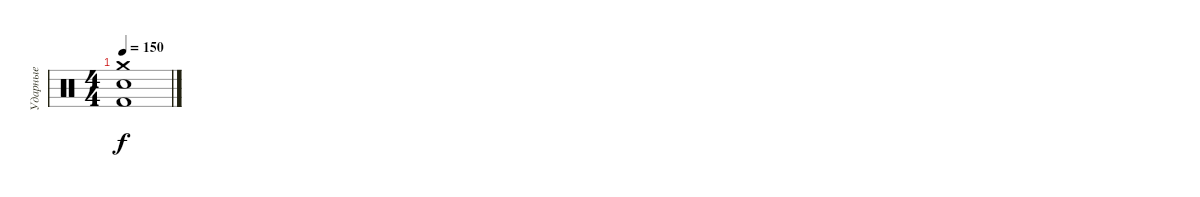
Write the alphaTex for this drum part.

\track ("Ударные" "Ударные") {instrument percussion}
\staff {score}
\articulation defaults
\ts (4 4)
\tempo 150
\clef neutral
\ks c
("Crash medium (hit)" "Electric Snare (hit)" "Kick (hit) 2").1{dy f}
